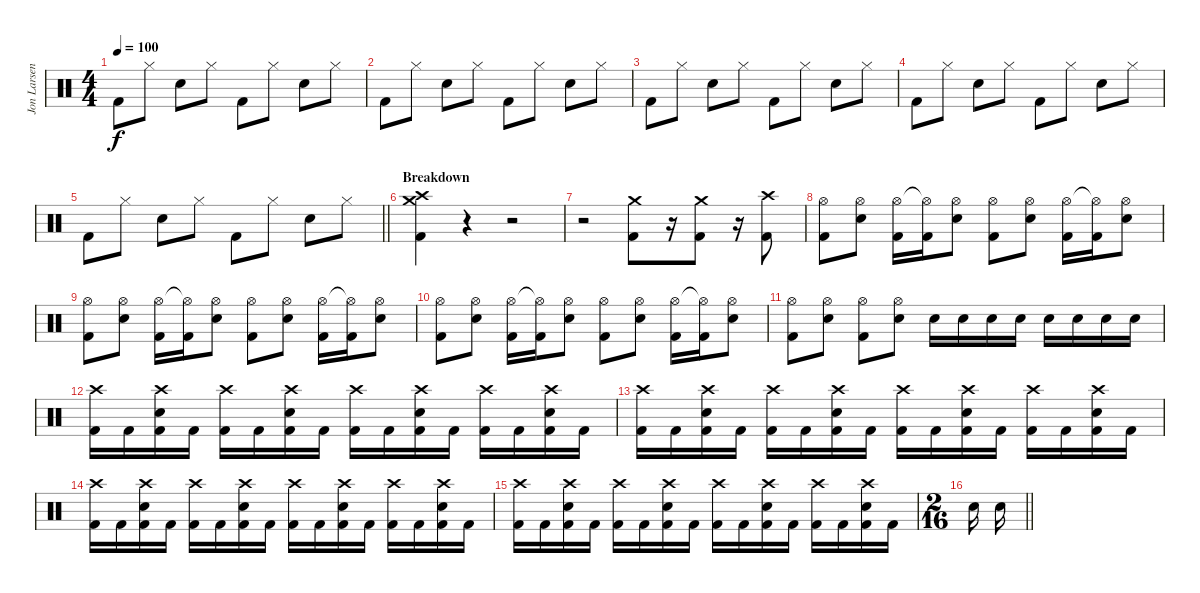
\track ("Jon Larsen" "Jon Larsen") {instrument percussion}
\staff {score}
\articulation defaults
\ts (4 4)
\tempo 100
\clef neutral
\ks c "Kick (hit) 2".8{dy f} "Hi-Hat (closed)".8 "Snare (hit) 2".8 "Hi-Hat (closed)".8 "Kick (hit) 2".8 "Hi-Hat (closed)".8 "Snare (hit) 2".8 "Hi-Hat (closed)".8
|
"Kick (hit) 2".8 "Hi-Hat (closed)".8 "Snare (hit) 2".8 "Hi-Hat (closed)".8 "Kick (hit) 2".8 "Hi-Hat (closed)".8 "Snare (hit) 2".8 "Hi-Hat (closed)".8 |
"Kick (hit) 2".8 "Hi-Hat (closed)".8 "Snare (hit) 2".8 "Hi-Hat (closed)".8 "Kick (hit) 2".8 "Hi-Hat (closed)".8 "Snare (hit) 2".8 "Hi-Hat (closed)".8 |
"Kick (hit) 2".8 "Hi-Hat (closed)".8 "Snare (hit) 2".8 "Hi-Hat (closed)".8 "Kick (hit) 2".8 "Hi-Hat (closed)".8 "Snare (hit) 2".8 "Hi-Hat (closed)".8 |
\barLineRight lightlight "Kick (hit) 2".8 "Hi-Hat (closed)".8 "Snare (hit) 2".8 "Hi-Hat (closed)".8 "Kick (hit) 2".8 "Hi-Hat (closed)".8 "Snare (hit) 2".8 "Hi-Hat (closed)".8
|
\section ("" "Breakdown")
("Crash high (hit)" "Crash medium (hit)" "Kick (hit) 2").4 r.4 r.2 |
r.2 ("Crash medium (hit)" "Kick (hit) 2").8 r.16 ("Crash medium (hit)" "Kick (hit) 2").8 r.16 ("Crash high (hit)" "Kick (hit) 2").8 |
("Hi-Hat (open)" "Kick (hit) 2").8 ("Hi-Hat (open)" "Snare (hit) 2").8 ("Hi-Hat (open)" "Kick (hit) 2").16 ("Hi-Hat (open)"{t} "Kick (hit) 2").16 ("Hi-Hat (open)" "Snare (hit) 2").8 ("Hi-Hat (open)" "Kick (hit) 2").8 ("Hi-Hat (open)" "Snare (hit) 2").8 ("Hi-Hat (open)" "Kick (hit) 2").16 ("Hi-Hat (open)"{t} "Kick (hit) 2").16 ("Hi-Hat (open)" "Snare (hit) 2").8 |
("Hi-Hat (open)" "Kick (hit) 2").8 ("Hi-Hat (open)" "Snare (hit) 2").8 ("Hi-Hat (open)" "Kick (hit) 2").16 ("Hi-Hat (open)"{t} "Kick (hit) 2").16 ("Hi-Hat (open)" "Snare (hit) 2").8 ("Hi-Hat (open)" "Kick (hit) 2").8 ("Hi-Hat (open)" "Snare (hit) 2").8 ("Hi-Hat (open)" "Kick (hit) 2").16 ("Hi-Hat (open)"{t} "Kick (hit) 2").16 ("Hi-Hat (open)" "Snare (hit) 2").8 |
("Hi-Hat (open)" "Kick (hit) 2").8 ("Hi-Hat (open)" "Snare (hit) 2").8 ("Hi-Hat (open)" "Kick (hit) 2").16 ("Hi-Hat (open)"{t} "Kick (hit) 2").16 ("Hi-Hat (open)" "Snare (hit) 2").8 ("Hi-Hat (open)" "Kick (hit) 2").8 ("Hi-Hat (open)" "Snare (hit) 2").8 ("Hi-Hat (open)" "Kick (hit) 2").16 ("Hi-Hat (open)"{t} "Kick (hit) 2").16 ("Hi-Hat (open)" "Snare (hit) 2").8 |
("Hi-Hat (open)" "Kick (hit) 2").8 ("Hi-Hat (open)" "Snare (hit) 2").8 ("Hi-Hat (open)" "Kick (hit) 2").8 ("Hi-Hat (open)" "Snare (hit) 2").8 "Snare (hit) 2".16 "Snare (hit) 2".16 "Snare (hit) 2".16 "Snare (hit) 2".16 "Snare (hit) 2".16 "Snare (hit) 2".16 "Snare (hit) 2".16 "Snare (hit) 2".16 |
("Crash high (hit)" "Kick (hit) 2").16 "Kick (hit) 2".16 ("Crash high (hit)" "Snare (hit) 2" "Kick (hit) 2").16 "Kick (hit) 2".16 ("Crash high (hit)" "Kick (hit) 2").16 "Kick (hit) 2".16 ("Crash high (hit)" "Snare (hit) 2" "Kick (hit) 2").16 "Kick (hit) 2".16 ("Crash high (hit)" "Kick (hit) 2").16 "Kick (hit) 2".16 ("Crash high (hit)" "Snare (hit) 2" "Kick (hit) 2").16 "Kick (hit) 2".16 ("Crash high (hit)" "Kick (hit) 2").16 "Kick (hit) 2".16 ("Crash high (hit)" "Snare (hit) 2" "Kick (hit) 2").16 "Kick (hit) 2".16 |
("Crash high (hit)" "Kick (hit) 2").16 "Kick (hit) 2".16 ("Crash high (hit)" "Snare (hit) 2" "Kick (hit) 2").16 "Kick (hit) 2".16 ("Crash high (hit)" "Kick (hit) 2").16 "Kick (hit) 2".16 ("Crash high (hit)" "Snare (hit) 2" "Kick (hit) 2").16 "Kick (hit) 2".16 ("Crash high (hit)" "Kick (hit) 2").16 "Kick (hit) 2".16 ("Crash high (hit)" "Snare (hit) 2" "Kick (hit) 2").16 "Kick (hit) 2".16 ("Crash high (hit)" "Kick (hit) 2").16 "Kick (hit) 2".16 ("Crash high (hit)" "Snare (hit) 2" "Kick (hit) 2").16 "Kick (hit) 2".16 |
("Crash high (hit)" "Kick (hit) 2").16 "Kick (hit) 2".16 ("Crash high (hit)" "Snare (hit) 2" "Kick (hit) 2").16 "Kick (hit) 2".16 ("Crash high (hit)" "Kick (hit) 2").16 "Kick (hit) 2".16 ("Crash high (hit)" "Snare (hit) 2" "Kick (hit) 2").16 "Kick (hit) 2".16 ("Crash high (hit)" "Kick (hit) 2").16 "Kick (hit) 2".16 ("Crash high (hit)" "Snare (hit) 2" "Kick (hit) 2").16 "Kick (hit) 2".16 ("Crash high (hit)" "Kick (hit) 2").16 "Kick (hit) 2".16 ("Crash high (hit)" "Snare (hit) 2" "Kick (hit) 2").16 "Kick (hit) 2".16 |
("Crash high (hit)" "Kick (hit) 2").16 "Kick (hit) 2".16 ("Crash high (hit)" "Snare (hit) 2" "Kick (hit) 2").16 "Kick (hit) 2".16 ("Crash high (hit)" "Kick (hit) 2").16 "Kick (hit) 2".16 ("Crash high (hit)" "Snare (hit) 2" "Kick (hit) 2").16 "Kick (hit) 2".16 ("Crash high (hit)" "Kick (hit) 2").16 "Kick (hit) 2".16 ("Crash high (hit)" "Snare (hit) 2" "Kick (hit) 2").16 "Kick (hit) 2".16 ("Crash high (hit)" "Kick (hit) 2").16 "Kick (hit) 2".16 ("Crash high (hit)" "Snare (hit) 2" "Kick (hit) 2").16 "Kick (hit) 2".16 |
\ts (2 16)
\barLineRight lightlight "Snare (hit) 2".16 "Snare (hit) 2".16
